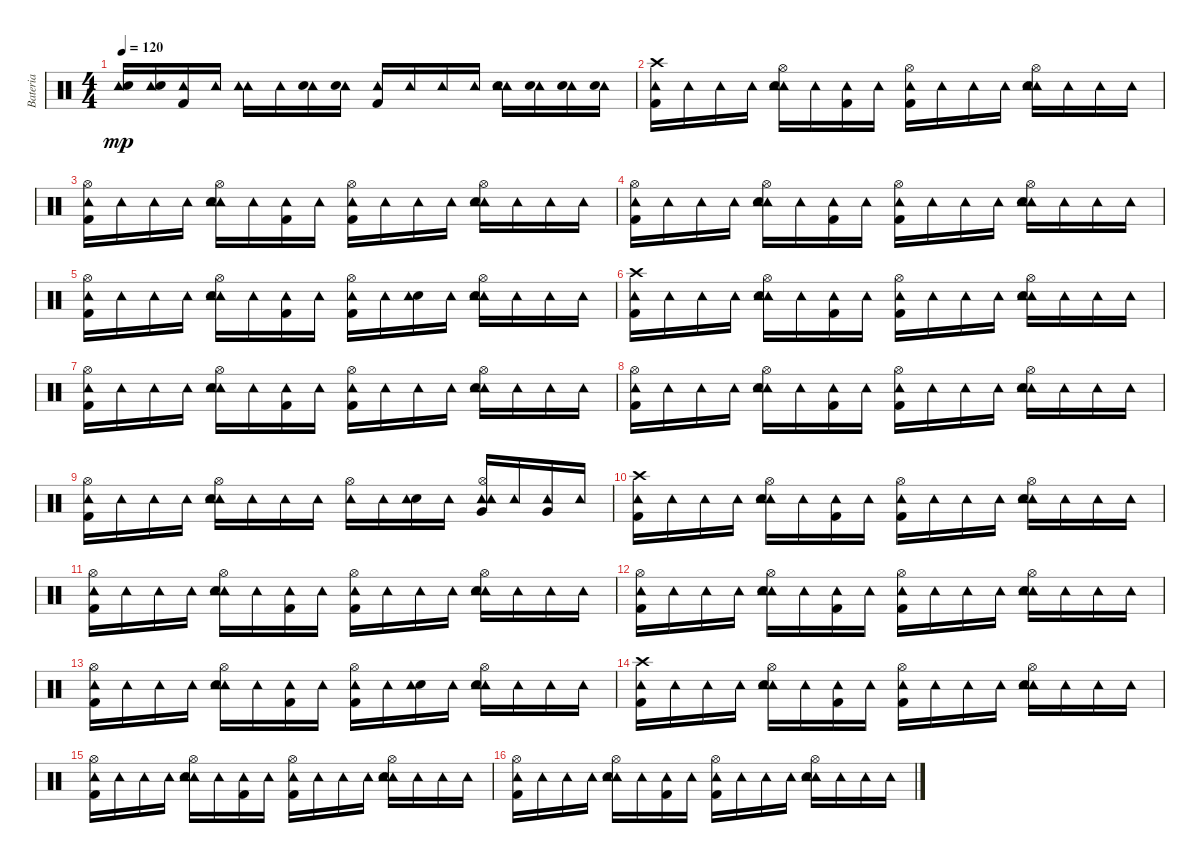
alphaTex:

\track ("Bateria" "Bateria") {instrument percussion}
\staff {score}
\articulation defaults
\ts (4 4)
\tempo 120
\clef neutral
\ks c
("Tambourine (hit)" "Snare (hit) 2").16{dy mp} ("Tambourine (hit)" "Snare (hit) 2").16 ("Tambourine (hit)" "Kick (hit) 2").16 "Tambourine (hit)".16 ("Tambourine (hit)" "Tambourine (hit)").16 "Tambourine (hit)".16 ("Tambourine (hit)" "Snare (hit) 2").16 ("Tambourine (hit)" "Snare (hit) 2").16 ("Tambourine (hit)" "Kick (hit) 2").16 "Tambourine (hit)".16 "Tambourine (hit)".16 "Tambourine (hit)".16 ("Tambourine (hit)" "Tambourine (hit)" "Snare (hit) 2").16 ("Tambourine (hit)" "Snare (hit) 2").16 ("Tambourine (hit)" "Snare (hit) 2").16 ("Tambourine (hit)" "Snare (hit) 2").16 |
("Tambourine (hit)" "Kick (hit) 2" "Crash high (hit)").16 "Tambourine (hit)".16 "Tambourine (hit)".16 "Tambourine (hit)".16 ("Tambourine (hit)" "Tambourine (hit)" "Snare (hit) 2" "Hi-Hat (open)").16 "Tambourine (hit)".16 ("Tambourine (hit)" "Kick (hit) 2").16 "Tambourine (hit)".16 ("Tambourine (hit)" "Hi-Hat (open)" "Kick (hit) 2").16 "Tambourine (hit)".16 "Tambourine (hit)".16 "Tambourine (hit)".16 ("Tambourine (hit)" "Tambourine (hit)" "Hi-Hat (open)" "Snare (hit) 2").16 "Tambourine (hit)".16 "Tambourine (hit)".16 "Tambourine (hit)".16 |
("Tambourine (hit)" "Hi-Hat (open)" "Kick (hit) 2").16 "Tambourine (hit)".16 "Tambourine (hit)".16 "Tambourine (hit)".16 ("Tambourine (hit)" "Tambourine (hit)" "Hi-Hat (open)" "Snare (hit) 2").16 "Tambourine (hit)".16 ("Tambourine (hit)" "Kick (hit) 2").16 "Tambourine (hit)".16 ("Tambourine (hit)" "Hi-Hat (open)" "Kick (hit) 2").16 "Tambourine (hit)".16 "Tambourine (hit)".16 "Tambourine (hit)".16 ("Tambourine (hit)" "Tambourine (hit)" "Hi-Hat (open)" "Snare (hit) 2").16 "Tambourine (hit)".16 "Tambourine (hit)".16 "Tambourine (hit)".16 |
("Tambourine (hit)" "Hi-Hat (open)" "Kick (hit) 2").16 "Tambourine (hit)".16 "Tambourine (hit)".16 "Tambourine (hit)".16 ("Tambourine (hit)" "Tambourine (hit)" "Snare (hit) 2" "Hi-Hat (open)").16 "Tambourine (hit)".16 ("Tambourine (hit)" "Kick (hit) 2").16 "Tambourine (hit)".16 ("Tambourine (hit)" "Hi-Hat (open)" "Kick (hit) 2").16 "Tambourine (hit)".16 "Tambourine (hit)".16 "Tambourine (hit)".16 ("Tambourine (hit)" "Tambourine (hit)" "Hi-Hat (open)" "Snare (hit) 2").16 "Tambourine (hit)".16 "Tambourine (hit)".16 "Tambourine (hit)".16 |
("Tambourine (hit)" "Hi-Hat (open)" "Kick (hit) 2").16 "Tambourine (hit)".16 "Tambourine (hit)".16 "Tambourine (hit)".16 ("Tambourine (hit)" "Tambourine (hit)" "Hi-Hat (open)" "Snare (hit) 2").16 "Tambourine (hit)".16 ("Tambourine (hit)" "Kick (hit) 2").16 "Tambourine (hit)".16 ("Tambourine (hit)" "Hi-Hat (open)" "Kick (hit) 2").16 "Tambourine (hit)".16 ("Snare (hit) 2" "Tambourine (hit)").16 "Tambourine (hit)".16 ("Tambourine (hit)" "Tambourine (hit)" "Hi-Hat (open)" "Snare (hit) 2").16 "Tambourine (hit)".16 "Tambourine (hit)".16 "Tambourine (hit)".16 |
("Tambourine (hit)" "Kick (hit) 2" "Crash high (hit)").16 "Tambourine (hit)".16 "Tambourine (hit)".16 "Tambourine (hit)".16 ("Tambourine (hit)" "Tambourine (hit)" "Snare (hit) 2" "Hi-Hat (open)").16 "Tambourine (hit)".16 ("Tambourine (hit)" "Kick (hit) 2").16 "Tambourine (hit)".16 ("Tambourine (hit)" "Hi-Hat (open)" "Kick (hit) 2").16 "Tambourine (hit)".16 "Tambourine (hit)".16 "Tambourine (hit)".16 ("Tambourine (hit)" "Tambourine (hit)" "Hi-Hat (open)" "Snare (hit) 2").16 "Tambourine (hit)".16 "Tambourine (hit)".16 "Tambourine (hit)".16 |
("Tambourine (hit)" "Hi-Hat (open)" "Kick (hit) 2").16 "Tambourine (hit)".16 "Tambourine (hit)".16 "Tambourine (hit)".16 ("Tambourine (hit)" "Tambourine (hit)" "Hi-Hat (open)" "Snare (hit) 2").16 "Tambourine (hit)".16 ("Tambourine (hit)" "Kick (hit) 2").16 "Tambourine (hit)".16 ("Tambourine (hit)" "Hi-Hat (open)" "Kick (hit) 2").16 "Tambourine (hit)".16 "Tambourine (hit)".16 "Tambourine (hit)".16 ("Tambourine (hit)" "Tambourine (hit)" "Hi-Hat (open)" "Snare (hit) 2").16 "Tambourine (hit)".16 "Tambourine (hit)".16 "Tambourine (hit)".16 |
("Tambourine (hit)" "Hi-Hat (open)" "Kick (hit) 2").16 "Tambourine (hit)".16 "Tambourine (hit)".16 "Tambourine (hit)".16 ("Tambourine (hit)" "Tambourine (hit)" "Hi-Hat (open)" "Snare (hit) 2").16 "Tambourine (hit)".16 ("Tambourine (hit)" "Kick (hit) 2").16 "Tambourine (hit)".16 ("Tambourine (hit)" "Hi-Hat (open)" "Kick (hit) 2").16 "Tambourine (hit)".16 "Tambourine (hit)".16 "Tambourine (hit)".16 ("Tambourine (hit)" "Tambourine (hit)" "Hi-Hat (open)" "Snare (hit) 2").16 "Tambourine (hit)".16 "Tambourine (hit)".16 "Tambourine (hit)".16 |
("Tambourine (hit)" "Hi-Hat (open)" "Kick (hit) 2").16 "Tambourine (hit)".16 "Tambourine (hit)".16 "Tambourine (hit)".16 ("Tambourine (hit)" "Tambourine (hit)" "Hi-Hat (open)" "Snare (hit) 2").16 "Tambourine (hit)".16 "Tambourine (hit)".16 "Tambourine (hit)".16 ("Tambourine (hit)" "Hi-Hat (open)").16 "Tambourine (hit)".16 ("Snare (hit) 2" "Tambourine (hit)").16 "Tambourine (hit)".16 ("Very Low Tom (hit)" "Tambourine (hit)" "Tambourine (hit)" "Hi-Hat (open)").16 "Tambourine (hit)".16 ("Very Low Tom (hit)" "Tambourine (hit)").16 "Tambourine (hit)".16 |
("Tambourine (hit)" "Kick (hit) 2" "Crash high (hit)").16 "Tambourine (hit)".16 "Tambourine (hit)".16 "Tambourine (hit)".16 ("Tambourine (hit)" "Tambourine (hit)" "Snare (hit) 2" "Hi-Hat (open)").16 "Tambourine (hit)".16 ("Tambourine (hit)" "Kick (hit) 2").16 "Tambourine (hit)".16 ("Tambourine (hit)" "Hi-Hat (open)" "Kick (hit) 2").16 "Tambourine (hit)".16 "Tambourine (hit)".16 "Tambourine (hit)".16 ("Tambourine (hit)" "Tambourine (hit)" "Hi-Hat (open)" "Snare (hit) 2").16 "Tambourine (hit)".16 "Tambourine (hit)".16 "Tambourine (hit)".16 |
("Tambourine (hit)" "Hi-Hat (open)" "Kick (hit) 2").16 "Tambourine (hit)".16 "Tambourine (hit)".16 "Tambourine (hit)".16 ("Tambourine (hit)" "Tambourine (hit)" "Hi-Hat (open)" "Snare (hit) 2").16 "Tambourine (hit)".16 ("Tambourine (hit)" "Kick (hit) 2").16 "Tambourine (hit)".16 ("Tambourine (hit)" "Hi-Hat (open)" "Kick (hit) 2").16 "Tambourine (hit)".16 "Tambourine (hit)".16 "Tambourine (hit)".16 ("Tambourine (hit)" "Tambourine (hit)" "Hi-Hat (open)" "Snare (hit) 2").16 "Tambourine (hit)".16 "Tambourine (hit)".16 "Tambourine (hit)".16 |
("Tambourine (hit)" "Hi-Hat (open)" "Kick (hit) 2").16 "Tambourine (hit)".16 "Tambourine (hit)".16 "Tambourine (hit)".16 ("Tambourine (hit)" "Tambourine (hit)" "Snare (hit) 2" "Hi-Hat (open)").16 "Tambourine (hit)".16 ("Tambourine (hit)" "Kick (hit) 2").16 "Tambourine (hit)".16 ("Tambourine (hit)" "Hi-Hat (open)" "Kick (hit) 2").16 "Tambourine (hit)".16 "Tambourine (hit)".16 "Tambourine (hit)".16 ("Tambourine (hit)" "Tambourine (hit)" "Hi-Hat (open)" "Snare (hit) 2").16 "Tambourine (hit)".16 "Tambourine (hit)".16 "Tambourine (hit)".16 |
("Tambourine (hit)" "Hi-Hat (open)" "Kick (hit) 2").16 "Tambourine (hit)".16 "Tambourine (hit)".16 "Tambourine (hit)".16 ("Tambourine (hit)" "Tambourine (hit)" "Hi-Hat (open)" "Snare (hit) 2").16 "Tambourine (hit)".16 ("Tambourine (hit)" "Kick (hit) 2").16 "Tambourine (hit)".16 ("Tambourine (hit)" "Hi-Hat (open)" "Kick (hit) 2").16 "Tambourine (hit)".16 ("Snare (hit) 2" "Tambourine (hit)").16 "Tambourine (hit)".16 ("Tambourine (hit)" "Tambourine (hit)" "Hi-Hat (open)" "Snare (hit) 2").16 "Tambourine (hit)".16 "Tambourine (hit)".16 "Tambourine (hit)".16 |
("Tambourine (hit)" "Kick (hit) 2" "Crash high (hit)").16 "Tambourine (hit)".16 "Tambourine (hit)".16 "Tambourine (hit)".16 ("Tambourine (hit)" "Tambourine (hit)" "Snare (hit) 2" "Hi-Hat (open)").16 "Tambourine (hit)".16 ("Tambourine (hit)" "Kick (hit) 2").16 "Tambourine (hit)".16 ("Tambourine (hit)" "Hi-Hat (open)" "Kick (hit) 2").16 "Tambourine (hit)".16 "Tambourine (hit)".16 "Tambourine (hit)".16 ("Tambourine (hit)" "Tambourine (hit)" "Hi-Hat (open)" "Snare (hit) 2").16 "Tambourine (hit)".16 "Tambourine (hit)".16 "Tambourine (hit)".16 |
("Tambourine (hit)" "Hi-Hat (open)" "Kick (hit) 2").16 "Tambourine (hit)".16 "Tambourine (hit)".16 "Tambourine (hit)".16 ("Tambourine (hit)" "Tambourine (hit)" "Hi-Hat (open)" "Snare (hit) 2").16 "Tambourine (hit)".16 ("Tambourine (hit)" "Kick (hit) 2").16 "Tambourine (hit)".16 ("Tambourine (hit)" "Hi-Hat (open)" "Kick (hit) 2").16 "Tambourine (hit)".16 "Tambourine (hit)".16 "Tambourine (hit)".16 ("Tambourine (hit)" "Tambourine (hit)" "Hi-Hat (open)" "Snare (hit) 2").16 "Tambourine (hit)".16 "Tambourine (hit)".16 "Tambourine (hit)".16 |
("Tambourine (hit)" "Hi-Hat (open)" "Kick (hit) 2").16 "Tambourine (hit)".16 "Tambourine (hit)".16 "Tambourine (hit)".16 ("Tambourine (hit)" "Tambourine (hit)" "Hi-Hat (open)" "Snare (hit) 2").16 "Tambourine (hit)".16 ("Tambourine (hit)" "Kick (hit) 2").16 "Tambourine (hit)".16 ("Tambourine (hit)" "Hi-Hat (open)" "Kick (hit) 2").16 "Tambourine (hit)".16 "Tambourine (hit)".16 "Tambourine (hit)".16 ("Tambourine (hit)" "Tambourine (hit)" "Hi-Hat (open)" "Snare (hit) 2").16 "Tambourine (hit)".16 "Tambourine (hit)".16 "Tambourine (hit)".16
